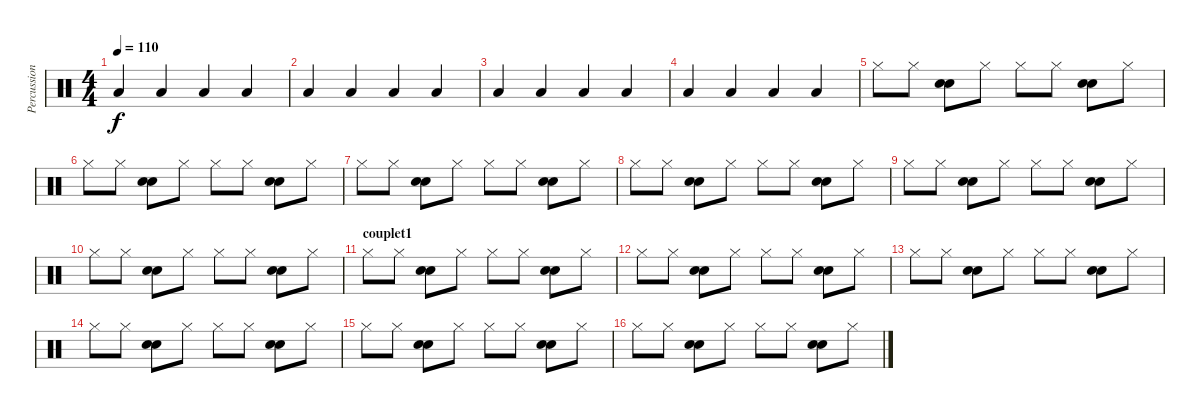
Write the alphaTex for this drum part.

\track ("Percussions" "Percussion") {instrument percussion}
\staff {score}
\articulation defaults
\ts (4 4)
\tempo 110
\clef neutral
\ks c "Low Floor Tom (hit)".4{dy f} "Low Floor Tom (hit)".4 "Low Floor Tom (hit)".4 "Low Floor Tom (hit)".4
|
"Low Floor Tom (hit)".4 "Low Floor Tom (hit)".4 "Low Floor Tom (hit)".4 "Low Floor Tom (hit)".4 |
"Low Floor Tom (hit)".4 "Low Floor Tom (hit)".4 "Low Floor Tom (hit)".4 "Low Floor Tom (hit)".4 |
"Low Floor Tom (hit)".4 "Low Floor Tom (hit)".4 "Low Floor Tom (hit)".4 "Low Floor Tom (hit)".4 |
"Hi-Hat (closed)".8 "Hi-Hat (closed)".8 ("Snare (hit) 2" "Electric Snare (hit)").8 "Hi-Hat (closed)".8 "Hi-Hat (closed)".8 "Hi-Hat (closed)".8 ("Snare (hit) 2" "Electric Snare (hit)").8 "Hi-Hat (closed)".8 |
"Hi-Hat (closed)".8 "Hi-Hat (closed)".8 ("Snare (hit) 2" "Electric Snare (hit)").8 "Hi-Hat (closed)".8 "Hi-Hat (closed)".8 "Hi-Hat (closed)".8 ("Snare (hit) 2" "Electric Snare (hit)").8 "Hi-Hat (closed)".8 |
"Hi-Hat (closed)".8 "Hi-Hat (closed)".8 ("Snare (hit) 2" "Electric Snare (hit)").8 "Hi-Hat (closed)".8 "Hi-Hat (closed)".8 "Hi-Hat (closed)".8 ("Snare (hit) 2" "Electric Snare (hit)").8 "Hi-Hat (closed)".8 |
"Hi-Hat (closed)".8 "Hi-Hat (closed)".8 ("Snare (hit) 2" "Electric Snare (hit)").8 "Hi-Hat (closed)".8 "Hi-Hat (closed)".8 "Hi-Hat (closed)".8 ("Snare (hit) 2" "Electric Snare (hit)").8 "Hi-Hat (closed)".8 |
"Hi-Hat (closed)".8 "Hi-Hat (closed)".8 ("Snare (hit) 2" "Electric Snare (hit)").8 "Hi-Hat (closed)".8 "Hi-Hat (closed)".8 "Hi-Hat (closed)".8 ("Snare (hit) 2" "Electric Snare (hit)").8 "Hi-Hat (closed)".8 |
"Hi-Hat (closed)".8 "Hi-Hat (closed)".8 ("Snare (hit) 2" "Electric Snare (hit)").8 "Hi-Hat (closed)".8 "Hi-Hat (closed)".8 "Hi-Hat (closed)".8 ("Snare (hit) 2" "Electric Snare (hit)").8 "Hi-Hat (closed)".8 |
\section ("" "couplet1")
"Hi-Hat (closed)".8 "Hi-Hat (closed)".8 ("Snare (hit) 2" "Electric Snare (hit)").8 "Hi-Hat (closed)".8 "Hi-Hat (closed)".8 "Hi-Hat (closed)".8 ("Snare (hit) 2" "Electric Snare (hit)").8 "Hi-Hat (closed)".8 |
"Hi-Hat (closed)".8 "Hi-Hat (closed)".8 ("Snare (hit) 2" "Electric Snare (hit)").8 "Hi-Hat (closed)".8 "Hi-Hat (closed)".8 "Hi-Hat (closed)".8 ("Snare (hit) 2" "Electric Snare (hit)").8 "Hi-Hat (closed)".8 |
"Hi-Hat (closed)".8 "Hi-Hat (closed)".8 ("Snare (hit) 2" "Electric Snare (hit)").8 "Hi-Hat (closed)".8 "Hi-Hat (closed)".8 "Hi-Hat (closed)".8 ("Snare (hit) 2" "Electric Snare (hit)").8 "Hi-Hat (closed)".8 |
"Hi-Hat (closed)".8 "Hi-Hat (closed)".8 ("Snare (hit) 2" "Electric Snare (hit)").8 "Hi-Hat (closed)".8 "Hi-Hat (closed)".8 "Hi-Hat (closed)".8 ("Snare (hit) 2" "Electric Snare (hit)").8 "Hi-Hat (closed)".8 |
"Hi-Hat (closed)".8 "Hi-Hat (closed)".8 ("Snare (hit) 2" "Electric Snare (hit)").8 "Hi-Hat (closed)".8 "Hi-Hat (closed)".8 "Hi-Hat (closed)".8 ("Snare (hit) 2" "Electric Snare (hit)").8 "Hi-Hat (closed)".8 |
"Hi-Hat (closed)".8 "Hi-Hat (closed)".8 ("Snare (hit) 2" "Electric Snare (hit)").8 "Hi-Hat (closed)".8 "Hi-Hat (closed)".8 "Hi-Hat (closed)".8 ("Snare (hit) 2" "Electric Snare (hit)").8 "Hi-Hat (closed)".8
